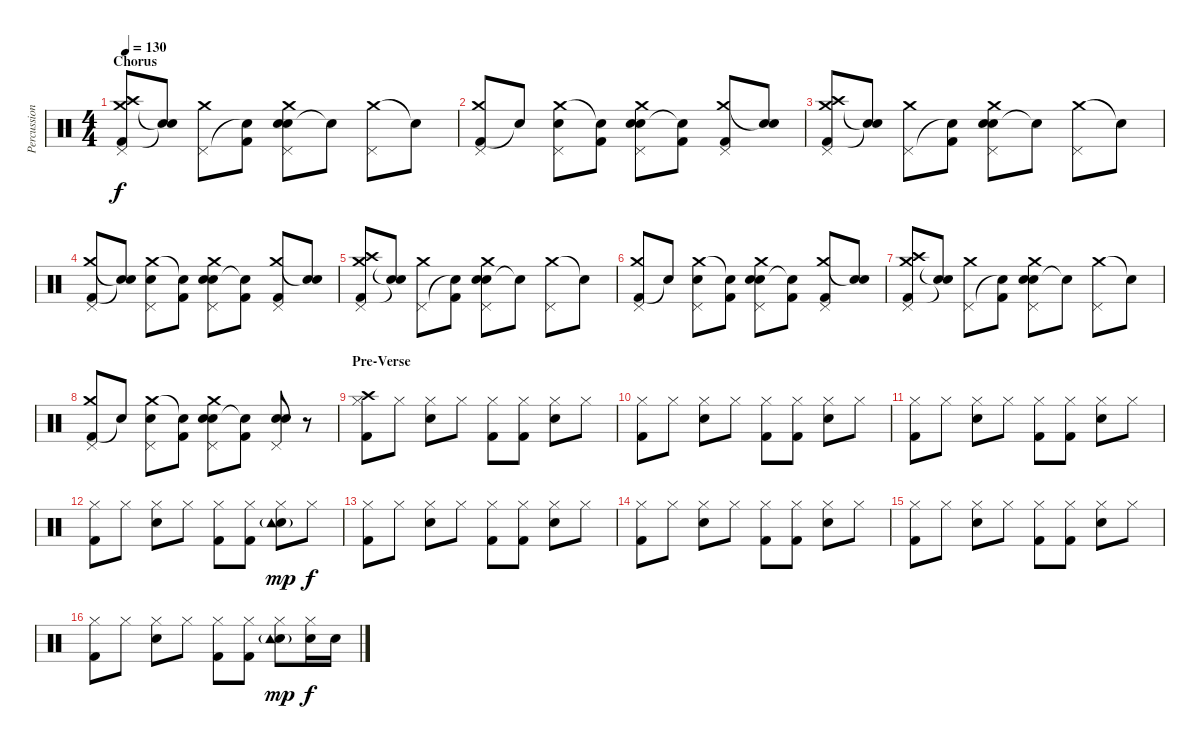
\track ("Percussion" "Percussion") {instrument percussion}
\staff {score}
\articulation defaults
\ts (4 4)
\section ("" "Chorus")
\tempo 130
\clef neutral
\ks c
("Kick (hit) 2" "Crash medium (hit)" "Crash high (hit)" "Pedal Hi-Hat (hit)").8{dy f} ("Snare (hit)"{t} "Snare (hit)"{t}).8 ("Crash medium (hit)" "Pedal Hi-Hat (hit)").8 ("Kick (hit) 2" "Snare (hit)"{t}).8 ("Electric Snare (hit)" "Electric Snare (hit)" "Crash medium (hit)" "Pedal Hi-Hat (hit)").8 "Snare (hit)"{t}.8 ("Crash medium (hit)" "Pedal Hi-Hat (hit)").8 "Snare (hit)"{t}.8 |
("Kick (hit) 2" "Crash medium (hit)" "Pedal Hi-Hat (hit)").8 "Snare (hit)"{t}.8 ("Electric Snare (hit)" "Crash medium (hit)" "Pedal Hi-Hat (hit)").8 ("Kick (hit) 2" "Snare (hit)"{t}).8 ("Electric Snare (hit)" "Electric Snare (hit)" "Crash medium (hit)" "Pedal Hi-Hat (hit)").8 ("Kick (hit) 2" "Snare (hit)"{t}).8 ("Kick (hit) 2" "Crash medium (hit)" "Pedal Hi-Hat (hit)").8 ("Electric Snare (hit)" "Snare (hit)"{t}).8 |
("Kick (hit) 2" "Crash medium (hit)" "Crash high (hit)" "Pedal Hi-Hat (hit)").8 ("Snare (hit)"{t} "Snare (hit)"{t}).8 ("Crash medium (hit)" "Pedal Hi-Hat (hit)").8 ("Kick (hit) 2" "Snare (hit)"{t}).8 ("Electric Snare (hit)" "Electric Snare (hit)" "Crash medium (hit)" "Pedal Hi-Hat (hit)").8 "Snare (hit)"{t}.8 ("Crash medium (hit)" "Pedal Hi-Hat (hit)").8 "Snare (hit)"{t}.8 |
("Kick (hit) 2" "Crash medium (hit)" "Pedal Hi-Hat (hit)").8 ("Snare (hit)"{t} "Snare (hit)"{t}).8 ("Electric Snare (hit)" "Crash medium (hit)" "Pedal Hi-Hat (hit)").8 ("Kick (hit) 2" "Snare (hit)"{t}).8 ("Electric Snare (hit)" "Electric Snare (hit)" "Crash medium (hit)" "Pedal Hi-Hat (hit)").8 ("Kick (hit) 2" "Snare (hit)"{t}).8 ("Kick (hit) 2" "Crash medium (hit)" "Pedal Hi-Hat (hit)").8 ("Electric Snare (hit)" "Snare (hit)"{t}).8 |
("Kick (hit) 2" "Crash medium (hit)" "Crash high (hit)" "Pedal Hi-Hat (hit)").8 ("Snare (hit)"{t} "Snare (hit)"{t}).8 ("Crash medium (hit)" "Pedal Hi-Hat (hit)").8 ("Kick (hit) 2" "Snare (hit)"{t}).8 ("Electric Snare (hit)" "Electric Snare (hit)" "Crash medium (hit)" "Pedal Hi-Hat (hit)").8 "Snare (hit)"{t}.8 ("Crash medium (hit)" "Pedal Hi-Hat (hit)").8 "Snare (hit)"{t}.8 |
("Kick (hit) 2" "Crash medium (hit)" "Pedal Hi-Hat (hit)").8 "Snare (hit)"{t}.8 ("Electric Snare (hit)" "Crash medium (hit)" "Pedal Hi-Hat (hit)").8 ("Kick (hit) 2" "Snare (hit)"{t}).8 ("Electric Snare (hit)" "Electric Snare (hit)" "Crash medium (hit)" "Pedal Hi-Hat (hit)").8 ("Kick (hit) 2" "Snare (hit)"{t}).8 ("Kick (hit) 2" "Crash medium (hit)" "Pedal Hi-Hat (hit)").8 ("Electric Snare (hit)" "Snare (hit)"{t}).8 |
("Kick (hit) 2" "Crash medium (hit)" "Crash high (hit)" "Pedal Hi-Hat (hit)").8 ("Snare (hit)"{t} "Snare (hit)"{t}).8 ("Crash medium (hit)" "Pedal Hi-Hat (hit)").8 ("Kick (hit) 2" "Snare (hit)"{t}).8 ("Electric Snare (hit)" "Electric Snare (hit)" "Crash medium (hit)" "Pedal Hi-Hat (hit)").8 "Snare (hit)"{t}.8 ("Crash medium (hit)" "Pedal Hi-Hat (hit)").8 "Snare (hit)"{t}.8 |
("Kick (hit) 2" "Crash medium (hit)" "Pedal Hi-Hat (hit)").8 "Snare (hit)"{t}.8 ("Electric Snare (hit)" "Crash medium (hit)" "Pedal Hi-Hat (hit)").8 ("Kick (hit) 2" "Snare (hit)"{t}).8 ("Electric Snare (hit)" "Electric Snare (hit)" "Crash medium (hit)" "Pedal Hi-Hat (hit)").8 ("Kick (hit) 2" "Snare (hit)"{t}).8 ("Electric Snare (hit)" "Electric Snare (hit)" "Pedal Hi-Hat (hit)").8 r.8 |
\section ("" "Pre-Verse")
("Kick (hit) 2" "Hi-Hat (closed)" "Crash high (hit)").8 "Hi-Hat (closed)".8 ("Electric Snare (hit)" "Hi-Hat (closed)").8 "Hi-Hat (closed)".8 ("Kick (hit) 2" "Hi-Hat (closed)").8 ("Kick (hit) 2" "Hi-Hat (closed)").8 ("Electric Snare (hit)" "Hi-Hat (closed)").8 "Hi-Hat (closed)".8 |
("Kick (hit) 2" "Hi-Hat (closed)").8 "Hi-Hat (closed)".8 ("Electric Snare (hit)" "Hi-Hat (closed)").8 "Hi-Hat (closed)".8 ("Kick (hit) 2" "Hi-Hat (closed)").8 ("Kick (hit) 2" "Hi-Hat (closed)").8 ("Electric Snare (hit)" "Hi-Hat (closed)").8 "Hi-Hat (closed)".8 |
("Kick (hit) 2" "Hi-Hat (closed)").8 "Hi-Hat (closed)".8 ("Electric Snare (hit)" "Hi-Hat (closed)").8 "Hi-Hat (closed)".8 ("Kick (hit) 2" "Hi-Hat (closed)").8 ("Kick (hit) 2" "Hi-Hat (closed)").8 ("Electric Snare (hit)" "Hi-Hat (closed)").8 "Hi-Hat (closed)".8 |
("Kick (hit) 2" "Hi-Hat (closed)").8 "Hi-Hat (closed)".8 ("Electric Snare (hit)" "Hi-Hat (closed)").8 "Hi-Hat (closed)".8 ("Kick (hit) 2" "Hi-Hat (closed)").8 ("Kick (hit) 2" "Hi-Hat (closed)").8 ("Electric Snare (hit)" "Hi-Hat (closed)" "Tambourine (hit)"{g}).8{dy mp} "Hi-Hat (closed)".8{dy f} |
("Kick (hit) 2" "Hi-Hat (closed)").8 "Hi-Hat (closed)".8 ("Electric Snare (hit)" "Hi-Hat (closed)").8 "Hi-Hat (closed)".8 ("Kick (hit) 2" "Hi-Hat (closed)").8 ("Kick (hit) 2" "Hi-Hat (closed)").8 ("Electric Snare (hit)" "Hi-Hat (closed)").8 "Hi-Hat (closed)".8 |
("Kick (hit) 2" "Hi-Hat (closed)").8 "Hi-Hat (closed)".8 ("Electric Snare (hit)" "Hi-Hat (closed)").8 "Hi-Hat (closed)".8 ("Kick (hit) 2" "Hi-Hat (closed)").8 ("Kick (hit) 2" "Hi-Hat (closed)").8 ("Electric Snare (hit)" "Hi-Hat (closed)").8 "Hi-Hat (closed)".8 |
("Kick (hit) 2" "Hi-Hat (closed)").8 "Hi-Hat (closed)".8 ("Electric Snare (hit)" "Hi-Hat (closed)").8 "Hi-Hat (closed)".8 ("Kick (hit) 2" "Hi-Hat (closed)").8 ("Kick (hit) 2" "Hi-Hat (closed)").8 ("Electric Snare (hit)" "Hi-Hat (closed)").8 "Hi-Hat (closed)".8 |
("Kick (hit) 2" "Hi-Hat (closed)").8 "Hi-Hat (closed)".8 ("Electric Snare (hit)" "Hi-Hat (closed)").8 "Hi-Hat (closed)".8 ("Kick (hit) 2" "Hi-Hat (closed)").8 ("Kick (hit) 2" "Hi-Hat (closed)").8 ("Electric Snare (hit)" "Hi-Hat (closed)" "Tambourine (hit)"{g}).8{dy mp} ("Electric Snare (hit)" "Hi-Hat (closed)").16{dy f} "Electric Snare (hit)".16
